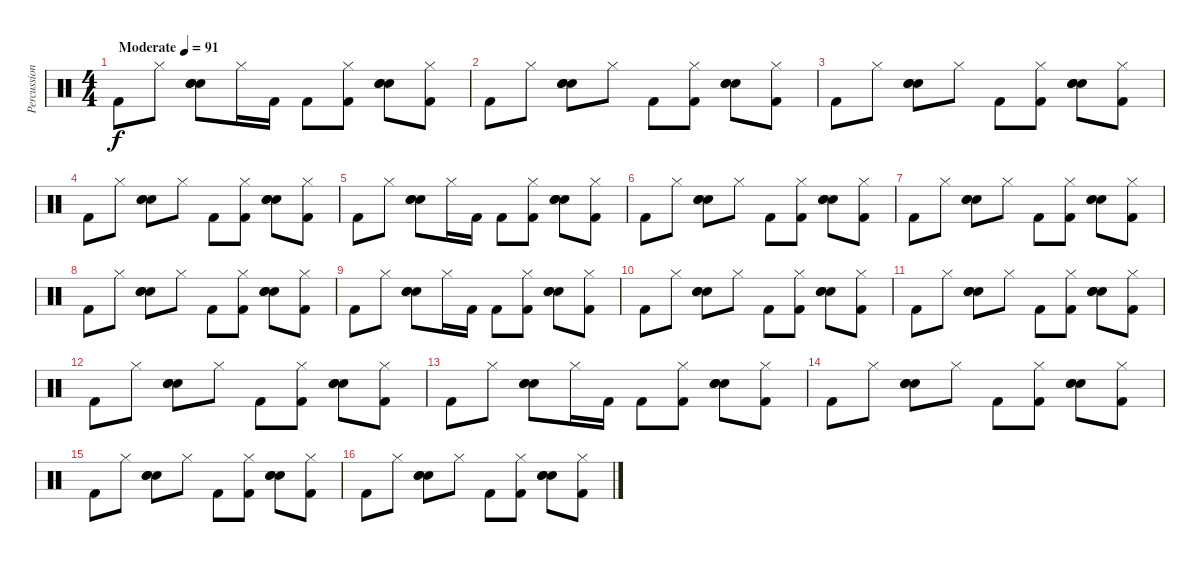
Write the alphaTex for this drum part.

\track ("Percussion" "Percussion") {instrument percussion}
\staff {score}
\articulation defaults
\ts (4 4)
\tempo (91 "Moderate")
\clef neutral
\ks c "Kick (hit) 2".8{dy f} "Hi-Hat (closed)".8
("Hand Clap (hit)" "Electric Snare (hit)" "Snare (hit) 2").8 "Hi-Hat (closed)".16 "Kick (hit) 2".16 "Kick (hit) 2".8 ("Hi-Hat (closed)" "Kick (hit) 2").8 ("Hand Clap (hit)" "Electric Snare (hit)" "Snare (hit) 2").8 ("Hi-Hat (closed)" "Kick (hit) 2").8 |
"Kick (hit) 2".8 "Hi-Hat (closed)".8 ("Hand Clap (hit)" "Electric Snare (hit)" "Snare (hit) 2").8 "Hi-Hat (closed)".8 "Kick (hit) 2".8 ("Hi-Hat (closed)" "Kick (hit) 2").8 ("Hand Clap (hit)" "Electric Snare (hit)" "Snare (hit) 2").8 ("Hi-Hat (closed)" "Kick (hit) 2").8 |
"Kick (hit) 2".8 "Hi-Hat (closed)".8 ("Hand Clap (hit)" "Electric Snare (hit)" "Snare (hit) 2").8 "Hi-Hat (closed)".8 "Kick (hit) 2".8 ("Hi-Hat (closed)" "Kick (hit) 2").8 ("Hand Clap (hit)" "Electric Snare (hit)" "Snare (hit) 2").8 ("Hi-Hat (closed)" "Kick (hit) 2").8 |
"Kick (hit) 2".8 "Hi-Hat (closed)".8 ("Hand Clap (hit)" "Electric Snare (hit)" "Snare (hit) 2").8 "Hi-Hat (closed)".8 "Kick (hit) 2".8 ("Hi-Hat (closed)" "Kick (hit) 2").8 ("Hand Clap (hit)" "Electric Snare (hit)" "Snare (hit) 2").8 ("Hi-Hat (closed)" "Kick (hit) 2").8 |
"Kick (hit) 2".8 "Hi-Hat (closed)".8 ("Hand Clap (hit)" "Electric Snare (hit)" "Snare (hit) 2").8 "Hi-Hat (closed)".16 "Kick (hit) 2".16 "Kick (hit) 2".8 ("Hi-Hat (closed)" "Kick (hit) 2").8 ("Hand Clap (hit)" "Electric Snare (hit)" "Snare (hit) 2").8 ("Hi-Hat (closed)" "Kick (hit) 2").8 |
"Kick (hit) 2".8 "Hi-Hat (closed)".8 ("Hand Clap (hit)" "Electric Snare (hit)" "Snare (hit) 2").8 "Hi-Hat (closed)".8 "Kick (hit) 2".8 ("Hi-Hat (closed)" "Kick (hit) 2").8 ("Hand Clap (hit)" "Electric Snare (hit)" "Snare (hit) 2").8 ("Hi-Hat (closed)" "Kick (hit) 2").8 |
"Kick (hit) 2".8 "Hi-Hat (closed)".8 ("Hand Clap (hit)" "Electric Snare (hit)" "Snare (hit) 2").8 "Hi-Hat (closed)".8 "Kick (hit) 2".8 ("Hi-Hat (closed)" "Kick (hit) 2").8 ("Hand Clap (hit)" "Electric Snare (hit)" "Snare (hit) 2").8 ("Hi-Hat (closed)" "Kick (hit) 2").8 |
"Kick (hit) 2".8 "Hi-Hat (closed)".8 ("Hand Clap (hit)" "Electric Snare (hit)" "Snare (hit) 2").8 "Hi-Hat (closed)".8 "Kick (hit) 2".8 ("Hi-Hat (closed)" "Kick (hit) 2").8 ("Hand Clap (hit)" "Electric Snare (hit)" "Snare (hit) 2").8 ("Hi-Hat (closed)" "Kick (hit) 2").8 |
"Kick (hit) 2".8 "Hi-Hat (closed)".8 ("Hand Clap (hit)" "Electric Snare (hit)" "Snare (hit) 2").8 "Hi-Hat (closed)".16 "Kick (hit) 2".16 "Kick (hit) 2".8 ("Hi-Hat (closed)" "Kick (hit) 2").8 ("Hand Clap (hit)" "Electric Snare (hit)" "Snare (hit) 2").8 ("Hi-Hat (closed)" "Kick (hit) 2").8 |
"Kick (hit) 2".8 "Hi-Hat (closed)".8 ("Hand Clap (hit)" "Electric Snare (hit)" "Snare (hit) 2").8 "Hi-Hat (closed)".8 "Kick (hit) 2".8 ("Hi-Hat (closed)" "Kick (hit) 2").8 ("Hand Clap (hit)" "Electric Snare (hit)" "Snare (hit) 2").8 ("Hi-Hat (closed)" "Kick (hit) 2").8 |
"Kick (hit) 2".8 "Hi-Hat (closed)".8 ("Hand Clap (hit)" "Electric Snare (hit)" "Snare (hit) 2").8 "Hi-Hat (closed)".8 "Kick (hit) 2".8 ("Hi-Hat (closed)" "Kick (hit) 2").8 ("Hand Clap (hit)" "Electric Snare (hit)" "Snare (hit) 2").8 ("Hi-Hat (closed)" "Kick (hit) 2").8 |
"Kick (hit) 2".8 "Hi-Hat (closed)".8 ("Hand Clap (hit)" "Electric Snare (hit)" "Snare (hit) 2").8 "Hi-Hat (closed)".8 "Kick (hit) 2".8 ("Hi-Hat (closed)" "Kick (hit) 2").8 ("Hand Clap (hit)" "Electric Snare (hit)" "Snare (hit) 2").8 ("Hi-Hat (closed)" "Kick (hit) 2").8 |
"Kick (hit) 2".8 "Hi-Hat (closed)".8 ("Hand Clap (hit)" "Electric Snare (hit)" "Snare (hit) 2").8 "Hi-Hat (closed)".16 "Kick (hit) 2".16 "Kick (hit) 2".8 ("Hi-Hat (closed)" "Kick (hit) 2").8 ("Hand Clap (hit)" "Electric Snare (hit)" "Snare (hit) 2").8 ("Hi-Hat (closed)" "Kick (hit) 2").8 |
"Kick (hit) 2".8 "Hi-Hat (closed)".8 ("Hand Clap (hit)" "Electric Snare (hit)" "Snare (hit) 2").8 "Hi-Hat (closed)".8 "Kick (hit) 2".8 ("Hi-Hat (closed)" "Kick (hit) 2").8 ("Hand Clap (hit)" "Electric Snare (hit)" "Snare (hit) 2").8 ("Hi-Hat (closed)" "Kick (hit) 2").8 |
"Kick (hit) 2".8 "Hi-Hat (closed)".8 ("Hand Clap (hit)" "Electric Snare (hit)" "Snare (hit) 2").8 "Hi-Hat (closed)".8 "Kick (hit) 2".8 ("Hi-Hat (closed)" "Kick (hit) 2").8 ("Hand Clap (hit)" "Electric Snare (hit)" "Snare (hit) 2").8 ("Hi-Hat (closed)" "Kick (hit) 2").8 |
"Kick (hit) 2".8 "Hi-Hat (closed)".8 ("Hand Clap (hit)" "Electric Snare (hit)" "Snare (hit) 2").8 "Hi-Hat (closed)".8 "Kick (hit) 2".8 ("Hi-Hat (closed)" "Kick (hit) 2").8 ("Hand Clap (hit)" "Electric Snare (hit)" "Snare (hit) 2").8 ("Hi-Hat (closed)" "Kick (hit) 2").8
